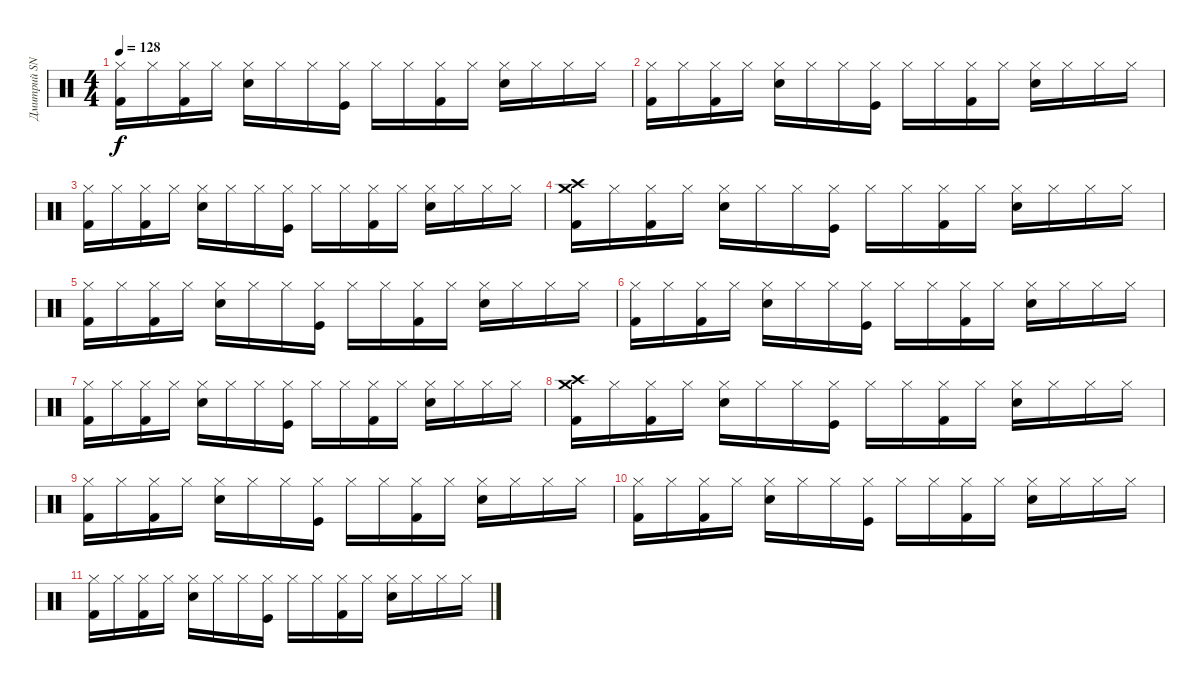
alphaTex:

\track ("Дмитрий SNAKE Хакимов (ударные)" "Дмитрий SN") {instrument percussion}
\staff {score}
\articulation defaults
\ts (4 4)
\tempo 128
\clef neutral
\ks c
("Hi-Hat (closed)" "Kick (hit) 2").16{dy f} "Hi-Hat (closed)".16 ("Hi-Hat (closed)" "Kick (hit) 2").16 "Hi-Hat (closed)".16 ("Hi-Hat (closed)" "Snare (hit) 2").16 "Hi-Hat (closed)".16 "Hi-Hat (closed)".16 ("Hi-Hat (closed)" "Kick (hit)").16 "Hi-Hat (closed)".16 "Hi-Hat (closed)".16 ("Hi-Hat (closed)" "Kick (hit) 2").16 "Hi-Hat (closed)".16 ("Hi-Hat (closed)" "Snare (hit) 2").16 "Hi-Hat (closed)".16 "Hi-Hat (closed)".16 "Hi-Hat (closed)".16 |
("Hi-Hat (closed)" "Kick (hit) 2").16 "Hi-Hat (closed)".16 ("Hi-Hat (closed)" "Kick (hit) 2").16 "Hi-Hat (closed)".16 ("Hi-Hat (closed)" "Snare (hit) 2").16 "Hi-Hat (closed)".16 "Hi-Hat (closed)".16 ("Hi-Hat (closed)" "Kick (hit)").16 "Hi-Hat (closed)".16 "Hi-Hat (closed)".16 ("Hi-Hat (closed)" "Kick (hit) 2").16 "Hi-Hat (closed)".16 ("Hi-Hat (closed)" "Snare (hit) 2").16 "Hi-Hat (closed)".16 "Hi-Hat (closed)".16 "Hi-Hat (closed)".16 |
("Hi-Hat (closed)" "Kick (hit) 2").16 "Hi-Hat (closed)".16 ("Hi-Hat (closed)" "Kick (hit) 2").16 "Hi-Hat (closed)".16 ("Hi-Hat (closed)" "Snare (hit) 2").16 "Hi-Hat (closed)".16 "Hi-Hat (closed)".16 ("Hi-Hat (closed)" "Kick (hit)").16 "Hi-Hat (closed)".16 "Hi-Hat (closed)".16 ("Hi-Hat (closed)" "Kick (hit) 2").16 "Hi-Hat (closed)".16 ("Hi-Hat (closed)" "Snare (hit) 2").16 "Hi-Hat (closed)".16 "Hi-Hat (closed)".16 "Hi-Hat (closed)".16 |
("Crash high (hit)" "Crash medium (hit)" "Kick (hit) 2").16 "Hi-Hat (closed)".16 ("Hi-Hat (closed)" "Kick (hit) 2").16 "Hi-Hat (closed)".16 ("Hi-Hat (closed)" "Snare (hit) 2").16 "Hi-Hat (closed)".16 "Hi-Hat (closed)".16 ("Hi-Hat (closed)" "Kick (hit)").16 "Hi-Hat (closed)".16 "Hi-Hat (closed)".16 ("Hi-Hat (closed)" "Kick (hit) 2").16 "Hi-Hat (closed)".16 ("Hi-Hat (closed)" "Snare (hit) 2").16 "Hi-Hat (closed)".16 "Hi-Hat (closed)".16 "Hi-Hat (closed)".16 |
("Hi-Hat (closed)" "Kick (hit) 2").16 "Hi-Hat (closed)".16 ("Hi-Hat (closed)" "Kick (hit) 2").16 "Hi-Hat (closed)".16 ("Hi-Hat (closed)" "Snare (hit) 2").16 "Hi-Hat (closed)".16 "Hi-Hat (closed)".16 ("Hi-Hat (closed)" "Kick (hit)").16 "Hi-Hat (closed)".16 "Hi-Hat (closed)".16 ("Hi-Hat (closed)" "Kick (hit) 2").16 "Hi-Hat (closed)".16 ("Hi-Hat (closed)" "Snare (hit) 2").16 "Hi-Hat (closed)".16 "Hi-Hat (closed)".16 "Hi-Hat (closed)".16 |
("Hi-Hat (closed)" "Kick (hit) 2").16 "Hi-Hat (closed)".16 ("Hi-Hat (closed)" "Kick (hit) 2").16 "Hi-Hat (closed)".16 ("Hi-Hat (closed)" "Snare (hit) 2").16 "Hi-Hat (closed)".16 "Hi-Hat (closed)".16 ("Hi-Hat (closed)" "Kick (hit)").16 "Hi-Hat (closed)".16 "Hi-Hat (closed)".16 ("Hi-Hat (closed)" "Kick (hit) 2").16 "Hi-Hat (closed)".16 ("Hi-Hat (closed)" "Snare (hit) 2").16 "Hi-Hat (closed)".16 "Hi-Hat (closed)".16 "Hi-Hat (closed)".16 |
("Hi-Hat (closed)" "Kick (hit) 2").16 "Hi-Hat (closed)".16 ("Hi-Hat (closed)" "Kick (hit) 2").16 "Hi-Hat (closed)".16 ("Hi-Hat (closed)" "Snare (hit) 2").16 "Hi-Hat (closed)".16 "Hi-Hat (closed)".16 ("Hi-Hat (closed)" "Kick (hit)").16 "Hi-Hat (closed)".16 "Hi-Hat (closed)".16 ("Hi-Hat (closed)" "Kick (hit) 2").16 "Hi-Hat (closed)".16 ("Hi-Hat (closed)" "Snare (hit) 2").16 "Hi-Hat (closed)".16 "Hi-Hat (closed)".16 "Hi-Hat (closed)".16 |
("Crash high (hit)" "Crash medium (hit)" "Kick (hit) 2").16 "Hi-Hat (closed)".16 ("Hi-Hat (closed)" "Kick (hit) 2").16 "Hi-Hat (closed)".16 ("Hi-Hat (closed)" "Snare (hit) 2").16 "Hi-Hat (closed)".16 "Hi-Hat (closed)".16 ("Hi-Hat (closed)" "Kick (hit)").16 "Hi-Hat (closed)".16 "Hi-Hat (closed)".16 ("Hi-Hat (closed)" "Kick (hit) 2").16 "Hi-Hat (closed)".16 ("Hi-Hat (closed)" "Snare (hit) 2").16 "Hi-Hat (closed)".16 "Hi-Hat (closed)".16 "Hi-Hat (closed)".16 |
("Hi-Hat (closed)" "Kick (hit) 2").16 "Hi-Hat (closed)".16 ("Hi-Hat (closed)" "Kick (hit) 2").16 "Hi-Hat (closed)".16 ("Hi-Hat (closed)" "Snare (hit) 2").16 "Hi-Hat (closed)".16 "Hi-Hat (closed)".16 ("Hi-Hat (closed)" "Kick (hit)").16 "Hi-Hat (closed)".16 "Hi-Hat (closed)".16 ("Hi-Hat (closed)" "Kick (hit) 2").16 "Hi-Hat (closed)".16 ("Hi-Hat (closed)" "Snare (hit) 2").16 "Hi-Hat (closed)".16 "Hi-Hat (closed)".16 "Hi-Hat (closed)".16 |
("Hi-Hat (closed)" "Kick (hit) 2").16 "Hi-Hat (closed)".16 ("Hi-Hat (closed)" "Kick (hit) 2").16 "Hi-Hat (closed)".16 ("Hi-Hat (closed)" "Snare (hit) 2").16 "Hi-Hat (closed)".16 "Hi-Hat (closed)".16 ("Hi-Hat (closed)" "Kick (hit)").16 "Hi-Hat (closed)".16 "Hi-Hat (closed)".16 ("Hi-Hat (closed)" "Kick (hit) 2").16 "Hi-Hat (closed)".16 ("Hi-Hat (closed)" "Snare (hit) 2").16 "Hi-Hat (closed)".16 "Hi-Hat (closed)".16 "Hi-Hat (closed)".16 |
("Hi-Hat (closed)" "Kick (hit) 2").16 "Hi-Hat (closed)".16 ("Hi-Hat (closed)" "Kick (hit) 2").16 "Hi-Hat (closed)".16 ("Hi-Hat (closed)" "Snare (hit) 2").16 "Hi-Hat (closed)".16 "Hi-Hat (closed)".16 ("Hi-Hat (closed)" "Kick (hit)").16 "Hi-Hat (closed)".16 "Hi-Hat (closed)".16 ("Hi-Hat (closed)" "Kick (hit) 2").16 "Hi-Hat (closed)".16 ("Hi-Hat (closed)" "Snare (hit) 2").16 "Hi-Hat (closed)".16 "Hi-Hat (closed)".16 "Hi-Hat (closed)".16
